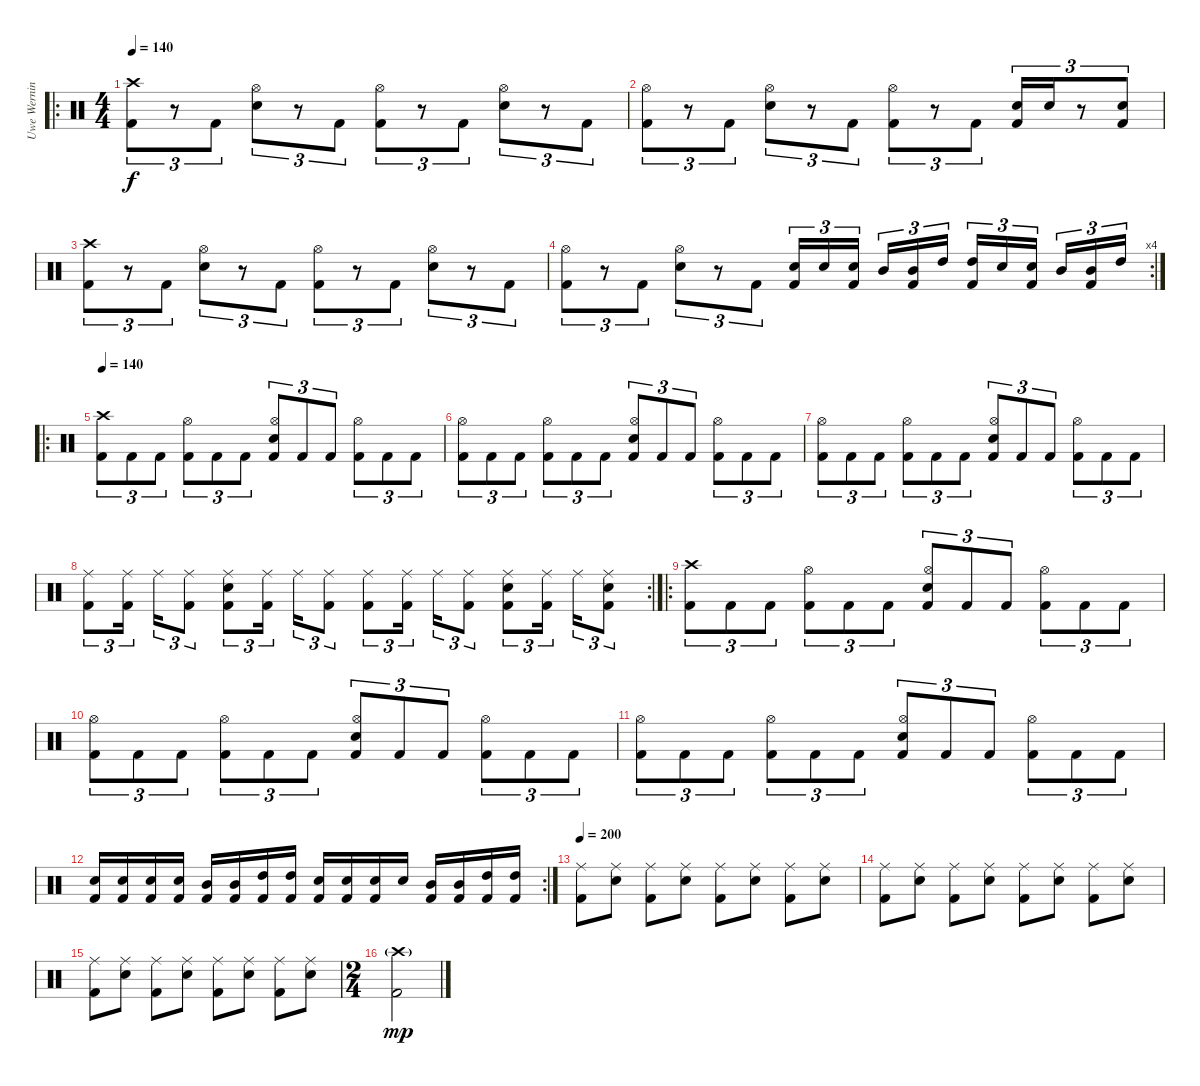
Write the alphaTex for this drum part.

\track ("Uwe Werning" "Uwe Wernin") {instrument percussion}
\staff {score}
\articulation defaults
\ro
\ts (4 4)
\tempo 140
\clef neutral
\ks c
("Crash high (hit)" "Kick (hit) 2").8{tu (3 2) dy f} r.8{tu (3 2)} "Kick (hit) 2".8{tu (3 2)} ("Hi-Hat (open)" "Electric Snare (hit)").8{tu (3 2)} r.8{tu (3 2)} "Kick (hit) 2".8{tu (3 2)} ("Hi-Hat (open)" "Kick (hit) 2").8{tu (3 2)} r.8{tu (3 2)} "Kick (hit) 2".8{tu (3 2)} ("Hi-Hat (open)" "Electric Snare (hit)").8{tu (3 2)} r.8{tu (3 2)} "Kick (hit) 2".8{tu (3 2)} |
("Hi-Hat (open)" "Kick (hit) 2").8{tu (3 2)} r.8{tu (3 2)} "Kick (hit) 2".8{tu (3 2)} ("Hi-Hat (open)" "Electric Snare (hit)").8{tu (3 2)} r.8{tu (3 2)} "Kick (hit) 2".8{tu (3 2)} ("Hi-Hat (open)" "Kick (hit) 2").8{tu (3 2)} r.8{tu (3 2)} "Kick (hit) 2".8{tu (3 2)} ("Electric Snare (hit)" "Kick (hit) 2").16{tu (3 2)} "Electric Snare (hit)".16{tu (3 2)} r.8{tu (3 2)} ("Electric Snare (hit)" "Kick (hit) 2").8{tu (3 2)} |
("Crash high (hit)" "Kick (hit) 2").8{tu (3 2)} r.8{tu (3 2)} "Kick (hit) 2".8{tu (3 2)} ("Hi-Hat (open)" "Electric Snare (hit)").8{tu (3 2)} r.8{tu (3 2)} "Kick (hit) 2".8{tu (3 2)} ("Hi-Hat (open)" "Kick (hit) 2").8{tu (3 2)} r.8{tu (3 2)} "Kick (hit) 2".8{tu (3 2)} ("Hi-Hat (open)" "Electric Snare (hit)").8{tu (3 2)} r.8{tu (3 2)} "Kick (hit) 2".8{tu (3 2)} |
\rc 4
("Hi-Hat (open)" "Kick (hit) 2").8{tu (3 2)} r.8{tu (3 2)} "Kick (hit) 2".8{tu (3 2)} ("Hi-Hat (open)" "Electric Snare (hit)").8{tu (3 2)} r.8{tu (3 2)} "Kick (hit) 2".8{tu (3 2)} ("Electric Snare (hit)" "Kick (hit) 2").16{tu (3 2)} "Electric Snare (hit)".16{tu (3 2)} ("Electric Snare (hit)" "Kick (hit) 2").16{tu (3 2)} "Mid Tom (hit)".16{tu (3 2)} ("Mid Tom (hit)" "Kick (hit) 2").16{tu (3 2)} "High Tom (hit)".16{tu (3 2)} ("High Tom (hit)" "Kick (hit) 2").16{tu (3 2)} "Electric Snare (hit)".16{tu (3 2)} ("Electric Snare (hit)" "Kick (hit) 2").16{tu (3 2)} "Mid Tom (hit)".16{tu (3 2)} ("Mid Tom (hit)" "Kick (hit) 2").16{tu (3 2)} "High Tom (hit)".16{tu (3 2)} |
\ro
\tempo 140
("Crash high (hit)" "Kick (hit) 2").8{tu (3 2)} "Kick (hit) 2".8{tu (3 2)} "Kick (hit) 2".8{tu (3 2)} ("Hi-Hat (open)" "Kick (hit) 2").8{tu (3 2)} "Kick (hit) 2".8{tu (3 2)} "Kick (hit) 2".8{tu (3 2)} ("Hi-Hat (open)" "Electric Snare (hit)" "Kick (hit) 2").8{tu (3 2)} "Kick (hit) 2".8{tu (3 2)} "Kick (hit) 2".8{tu (3 2)} ("Hi-Hat (open)" "Kick (hit) 2").8{tu (3 2)} "Kick (hit) 2".8{tu (3 2)} "Kick (hit) 2".8{tu (3 2)} |
("Hi-Hat (open)" "Kick (hit) 2").8{tu (3 2)} "Kick (hit) 2".8{tu (3 2)} "Kick (hit) 2".8{tu (3 2)} ("Hi-Hat (open)" "Kick (hit) 2").8{tu (3 2)} "Kick (hit) 2".8{tu (3 2)} "Kick (hit) 2".8{tu (3 2)} ("Hi-Hat (open)" "Electric Snare (hit)" "Kick (hit) 2").8{tu (3 2)} "Kick (hit) 2".8{tu (3 2)} "Kick (hit) 2".8{tu (3 2)} ("Hi-Hat (open)" "Kick (hit) 2").8{tu (3 2)} "Kick (hit) 2".8{tu (3 2)} "Kick (hit) 2".8{tu (3 2)} |
("Hi-Hat (open)" "Kick (hit) 2").8{tu (3 2)} "Kick (hit) 2".8{tu (3 2)} "Kick (hit) 2".8{tu (3 2)} ("Hi-Hat (open)" "Kick (hit) 2").8{tu (3 2)} "Kick (hit) 2".8{tu (3 2)} "Kick (hit) 2".8{tu (3 2)} ("Hi-Hat (open)" "Electric Snare (hit)" "Kick (hit) 2").8{tu (3 2)} "Kick (hit) 2".8{tu (3 2)} "Kick (hit) 2".8{tu (3 2)} ("Hi-Hat (open)" "Kick (hit) 2").8{tu (3 2)} "Kick (hit) 2".8{tu (3 2)} "Kick (hit) 2".8{tu (3 2)} |
\rc 2
("Ride (middle)" "Kick (hit) 2").8{tu (3 2)} ("Ride (middle)" "Kick (hit) 2").16{tu (3 2)} "Ride (middle)".16{tu (3 2)} ("Ride (middle)" "Kick (hit) 2").8{tu (3 2)} ("Ride (middle)" "Electric Snare (hit)" "Kick (hit) 2").8{tu (3 2)} ("Ride (middle)" "Kick (hit) 2").16{tu (3 2)} "Ride (middle)".16{tu (3 2)} ("Ride (middle)" "Kick (hit) 2").8{tu (3 2)} ("Ride (middle)" "Kick (hit) 2").8{tu (3 2)} ("Ride (middle)" "Kick (hit) 2").16{tu (3 2)} "Ride (middle)".16{tu (3 2)} ("Ride (middle)" "Kick (hit) 2").8{tu (3 2)} ("Ride (middle)" "Electric Snare (hit)" "Kick (hit) 2").8{tu (3 2)} ("Ride (middle)" "Kick (hit) 2").16{tu (3 2)} "Ride (middle)".16{tu (3 2)} ("Ride (middle)" "Electric Snare (hit)" "Kick (hit) 2").8{tu (3 2)} |
\ro
("Crash high (hit)" "Kick (hit) 2").8{tu (3 2)} "Kick (hit) 2".8{tu (3 2)} "Kick (hit) 2".8{tu (3 2)} ("Hi-Hat (open)" "Kick (hit) 2").8{tu (3 2)} "Kick (hit) 2".8{tu (3 2)} "Kick (hit) 2".8{tu (3 2)} ("Hi-Hat (open)" "Electric Snare (hit)" "Kick (hit) 2").8{tu (3 2)} "Kick (hit) 2".8{tu (3 2)} "Kick (hit) 2".8{tu (3 2)} ("Hi-Hat (open)" "Kick (hit) 2").8{tu (3 2)} "Kick (hit) 2".8{tu (3 2)} "Kick (hit) 2".8{tu (3 2)} |
("Hi-Hat (open)" "Kick (hit) 2").8{tu (3 2)} "Kick (hit) 2".8{tu (3 2)} "Kick (hit) 2".8{tu (3 2)} ("Hi-Hat (open)" "Kick (hit) 2").8{tu (3 2)} "Kick (hit) 2".8{tu (3 2)} "Kick (hit) 2".8{tu (3 2)} ("Hi-Hat (open)" "Electric Snare (hit)" "Kick (hit) 2").8{tu (3 2)} "Kick (hit) 2".8{tu (3 2)} "Kick (hit) 2".8{tu (3 2)} ("Hi-Hat (open)" "Kick (hit) 2").8{tu (3 2)} "Kick (hit) 2".8{tu (3 2)} "Kick (hit) 2".8{tu (3 2)} |
("Hi-Hat (open)" "Kick (hit) 2").8{tu (3 2)} "Kick (hit) 2".8{tu (3 2)} "Kick (hit) 2".8{tu (3 2)} ("Hi-Hat (open)" "Kick (hit) 2").8{tu (3 2)} "Kick (hit) 2".8{tu (3 2)} "Kick (hit) 2".8{tu (3 2)} ("Hi-Hat (open)" "Electric Snare (hit)" "Kick (hit) 2").8{tu (3 2)} "Kick (hit) 2".8{tu (3 2)} "Kick (hit) 2".8{tu (3 2)} ("Hi-Hat (open)" "Kick (hit) 2").8{tu (3 2)} "Kick (hit) 2".8{tu (3 2)} "Kick (hit) 2".8{tu (3 2)} |
\rc 2
("Electric Snare (hit)" "Kick (hit) 2").16 ("Electric Snare (hit)" "Kick (hit) 2").16 ("Electric Snare (hit)" "Kick (hit) 2").16 ("Electric Snare (hit)" "Kick (hit) 2").16 ("Mid Tom (hit)" "Kick (hit) 2").16 ("Mid Tom (hit)" "Kick (hit) 2").16 ("High Tom (hit)" "Kick (hit) 2").16 ("High Tom (hit)" "Kick (hit) 2").16 ("Electric Snare (hit)" "Kick (hit) 2").16 ("Electric Snare (hit)" "Kick (hit) 2").16 ("Electric Snare (hit)" "Kick (hit) 2").16 "Electric Snare (hit)".16 ("Mid Tom (hit)" "Kick (hit) 2").16 ("Mid Tom (hit)" "Kick (hit) 2").16 ("High Tom (hit)" "Kick (hit) 2").16 ("High Tom (hit)" "Kick (hit) 2").16 |
\tempo 200
("Ride (middle)" "Kick (hit) 2").8 ("Ride (middle)" "Electric Snare (hit)").8 ("Ride (middle)" "Kick (hit) 2").8 ("Ride (middle)" "Electric Snare (hit)").8 ("Ride (middle)" "Kick (hit) 2").8 ("Ride (middle)" "Electric Snare (hit)").8 ("Ride (middle)" "Kick (hit) 2").8 ("Ride (middle)" "Electric Snare (hit)").8 |
("Ride (middle)" "Kick (hit) 2").8 ("Ride (middle)" "Electric Snare (hit)").8 ("Ride (middle)" "Kick (hit) 2").8 ("Ride (middle)" "Electric Snare (hit)").8 ("Ride (middle)" "Kick (hit) 2").8 ("Ride (middle)" "Electric Snare (hit)").8 ("Ride (middle)" "Kick (hit) 2").8 ("Ride (middle)" "Electric Snare (hit)").8 |
("Ride (middle)" "Kick (hit) 2").8 ("Ride (middle)" "Electric Snare (hit)").8 ("Ride (middle)" "Kick (hit) 2").8 ("Ride (middle)" "Electric Snare (hit)").8 ("Ride (middle)" "Kick (hit) 2").8 ("Ride (middle)" "Electric Snare (hit)").8 ("Ride (middle)" "Kick (hit) 2").8 ("Ride (middle)" "Electric Snare (hit)").8 |
\ts (2 4)
("Crash high (hit)"{g} "Kick (hit) 2").2{dy mp}
